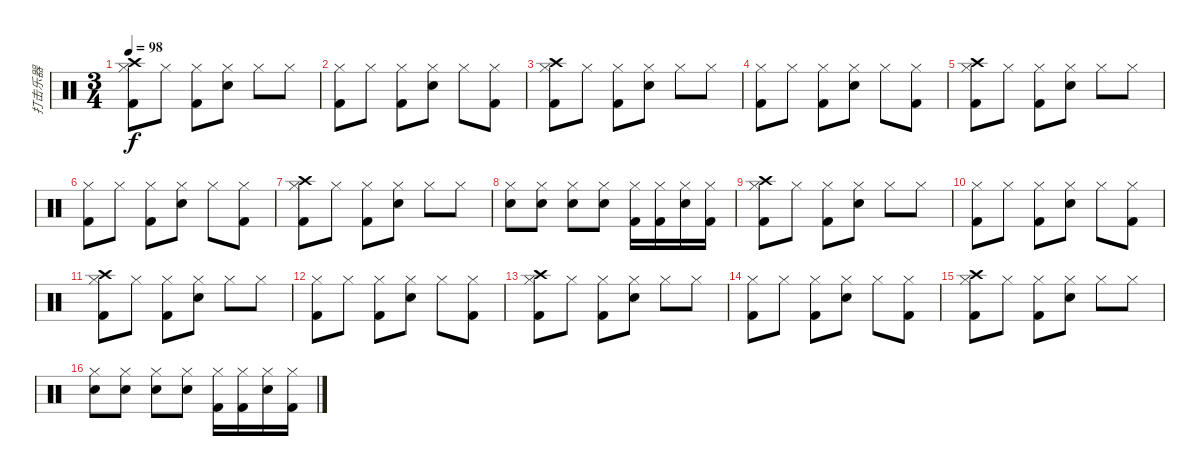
\track ("打击乐器" "打击乐器") {instrument percussion}
\staff {score}
\articulation defaults
\ts (3 4)
\tempo 98
\clef neutral
\ks c
("Kick (hit) 2" "Crash high (hit)" "Hi-Hat (closed)").8{dy f} "Hi-Hat (closed)".8 ("Kick (hit) 2" "Hi-Hat (closed)").8 ("Snare (hit) 2" "Hi-Hat (closed)").8 "Hi-Hat (closed)".8 "Hi-Hat (closed)".8 |
("Kick (hit) 2" "Hi-Hat (closed)").8 "Hi-Hat (closed)".8 ("Kick (hit) 2" "Hi-Hat (closed)").8 ("Snare (hit) 2" "Hi-Hat (closed)").8 "Hi-Hat (closed)".8 ("Kick (hit) 2" "Hi-Hat (closed)").8 |
("Kick (hit) 2" "Crash high (hit)" "Hi-Hat (closed)").8 "Hi-Hat (closed)".8 ("Kick (hit) 2" "Hi-Hat (closed)").8 ("Snare (hit) 2" "Hi-Hat (closed)").8 "Hi-Hat (closed)".8 "Hi-Hat (closed)".8 |
("Kick (hit) 2" "Hi-Hat (closed)").8 "Hi-Hat (closed)".8 ("Kick (hit) 2" "Hi-Hat (closed)").8 ("Snare (hit) 2" "Hi-Hat (closed)").8 "Hi-Hat (closed)".8 ("Kick (hit) 2" "Hi-Hat (closed)").8 |
("Kick (hit) 2" "Crash high (hit)" "Hi-Hat (closed)").8 "Hi-Hat (closed)".8 ("Kick (hit) 2" "Hi-Hat (closed)").8 ("Snare (hit) 2" "Hi-Hat (closed)").8 "Hi-Hat (closed)".8 "Hi-Hat (closed)".8 |
("Kick (hit) 2" "Hi-Hat (closed)").8 "Hi-Hat (closed)".8 ("Kick (hit) 2" "Hi-Hat (closed)").8 ("Snare (hit) 2" "Hi-Hat (closed)").8 "Hi-Hat (closed)".8 ("Kick (hit) 2" "Hi-Hat (closed)").8 |
("Kick (hit) 2" "Crash high (hit)" "Hi-Hat (closed)").8 "Hi-Hat (closed)".8 ("Kick (hit) 2" "Hi-Hat (closed)").8 ("Snare (hit) 2" "Hi-Hat (closed)").8 "Hi-Hat (closed)".8 "Hi-Hat (closed)".8 |
("Snare (hit) 2" "Hi-Hat (closed)").8 ("Snare (hit) 2" "Hi-Hat (closed)").8 ("Snare (hit) 2" "Hi-Hat (closed)").8 ("Snare (hit) 2" "Hi-Hat (closed)").8 ("Kick (hit) 2" "Hi-Hat (closed)").16 ("Kick (hit) 2" "Hi-Hat (closed)").16 ("Snare (hit) 2" "Hi-Hat (closed)").16 ("Kick (hit) 2" "Hi-Hat (closed)").16 |
("Kick (hit) 2" "Crash high (hit)" "Hi-Hat (closed)").8 "Hi-Hat (closed)".8 ("Kick (hit) 2" "Hi-Hat (closed)").8 ("Snare (hit) 2" "Hi-Hat (closed)").8 "Hi-Hat (closed)".8 "Hi-Hat (closed)".8 |
("Kick (hit) 2" "Hi-Hat (closed)").8 "Hi-Hat (closed)".8 ("Kick (hit) 2" "Hi-Hat (closed)").8 ("Snare (hit) 2" "Hi-Hat (closed)").8 "Hi-Hat (closed)".8 ("Kick (hit) 2" "Hi-Hat (closed)").8 |
("Kick (hit) 2" "Crash high (hit)" "Hi-Hat (closed)").8 "Hi-Hat (closed)".8 ("Kick (hit) 2" "Hi-Hat (closed)").8 ("Snare (hit) 2" "Hi-Hat (closed)").8 "Hi-Hat (closed)".8 "Hi-Hat (closed)".8 |
("Kick (hit) 2" "Hi-Hat (closed)").8 "Hi-Hat (closed)".8 ("Kick (hit) 2" "Hi-Hat (closed)").8 ("Snare (hit) 2" "Hi-Hat (closed)").8 "Hi-Hat (closed)".8 ("Kick (hit) 2" "Hi-Hat (closed)").8 |
("Kick (hit) 2" "Crash high (hit)" "Hi-Hat (closed)").8 "Hi-Hat (closed)".8 ("Kick (hit) 2" "Hi-Hat (closed)").8 ("Snare (hit) 2" "Hi-Hat (closed)").8 "Hi-Hat (closed)".8 "Hi-Hat (closed)".8 |
("Kick (hit) 2" "Hi-Hat (closed)").8 "Hi-Hat (closed)".8 ("Kick (hit) 2" "Hi-Hat (closed)").8 ("Snare (hit) 2" "Hi-Hat (closed)").8 "Hi-Hat (closed)".8 ("Kick (hit) 2" "Hi-Hat (closed)").8 |
("Kick (hit) 2" "Crash high (hit)" "Hi-Hat (closed)").8 "Hi-Hat (closed)".8 ("Kick (hit) 2" "Hi-Hat (closed)").8 ("Snare (hit) 2" "Hi-Hat (closed)").8 "Hi-Hat (closed)".8 "Hi-Hat (closed)".8 |
("Snare (hit) 2" "Hi-Hat (closed)").8 ("Snare (hit) 2" "Hi-Hat (closed)").8 ("Snare (hit) 2" "Hi-Hat (closed)").8 ("Snare (hit) 2" "Hi-Hat (closed)").8 ("Kick (hit) 2" "Hi-Hat (closed)").16 ("Kick (hit) 2" "Hi-Hat (closed)").16 ("Snare (hit) 2" "Hi-Hat (closed)").16 ("Kick (hit) 2" "Hi-Hat (closed)").16
